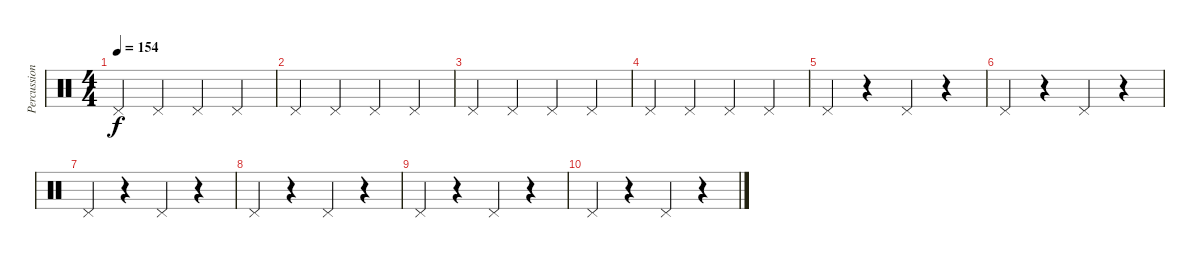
\track ("Percussion" "Percussion") {instrument percussion}
\staff {score}
\articulation defaults
\ts (4 4)
\tempo 154
\clef neutral
\ks c "Pedal Hi-Hat (hit)".4{dy f} "Pedal Hi-Hat (hit)".4 "Pedal Hi-Hat (hit)".4 "Pedal Hi-Hat (hit)".4
|
"Pedal Hi-Hat (hit)".4 "Pedal Hi-Hat (hit)".4 "Pedal Hi-Hat (hit)".4 "Pedal Hi-Hat (hit)".4 |
"Pedal Hi-Hat (hit)".4 "Pedal Hi-Hat (hit)".4 "Pedal Hi-Hat (hit)".4 "Pedal Hi-Hat (hit)".4 |
"Pedal Hi-Hat (hit)".4 "Pedal Hi-Hat (hit)".4 "Pedal Hi-Hat (hit)".4 "Pedal Hi-Hat (hit)".4 |
"Pedal Hi-Hat (hit)".4 r.4 "Pedal Hi-Hat (hit)".4 r.4 |
"Pedal Hi-Hat (hit)".4 r.4 "Pedal Hi-Hat (hit)".4 r.4 |
"Pedal Hi-Hat (hit)".4 r.4 "Pedal Hi-Hat (hit)".4 r.4 |
"Pedal Hi-Hat (hit)".4 r.4 "Pedal Hi-Hat (hit)".4 r.4 |
"Pedal Hi-Hat (hit)".4 r.4 "Pedal Hi-Hat (hit)".4 r.4 |
"Pedal Hi-Hat (hit)".4 r.4 "Pedal Hi-Hat (hit)".4 r.4
